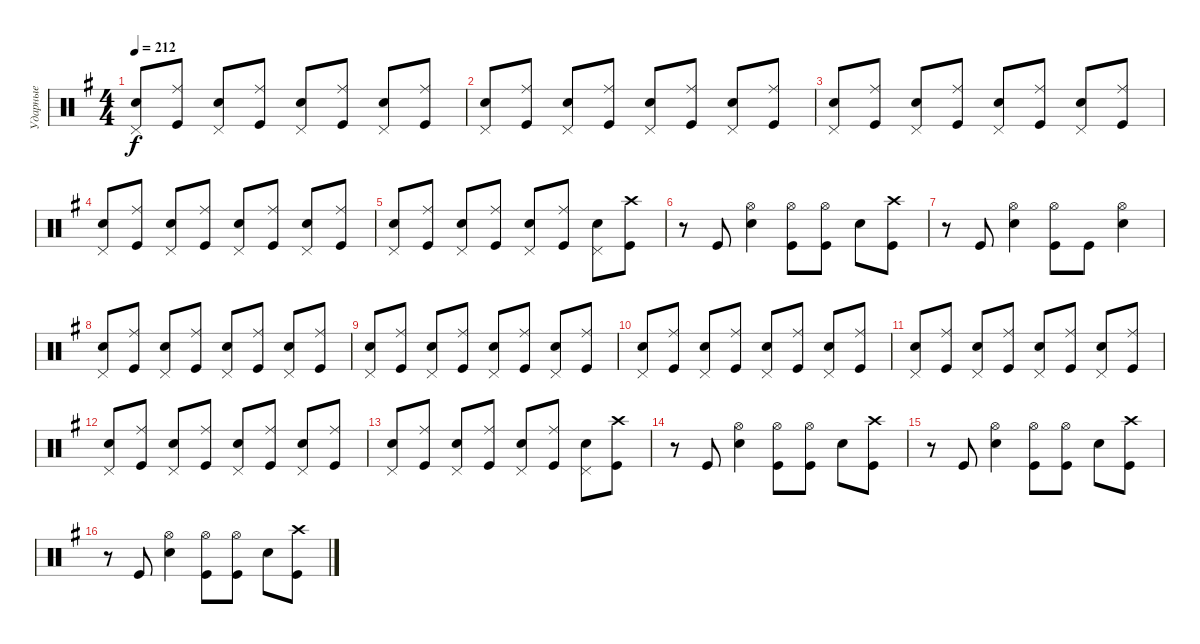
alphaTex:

\track ("Ударные" "Ударные") {instrument percussion}
\staff {score}
\articulation defaults
\ts (4 4)
\tempo 212
\clef neutral
\ks eminor
("Snare (hit) 2" "Pedal Hi-Hat (hit)").8{dy f} ("Kick (hit)" "Ride (middle)").8 ("Snare (hit) 2" "Pedal Hi-Hat (hit)").8 ("Kick (hit)" "Ride (middle)").8 ("Snare (hit) 2" "Pedal Hi-Hat (hit)").8 ("Kick (hit)" "Ride (middle)").8 ("Snare (hit) 2" "Pedal Hi-Hat (hit)").8 ("Kick (hit)" "Ride (middle)").8 |
("Snare (hit) 2" "Pedal Hi-Hat (hit)").8 ("Kick (hit)" "Ride (middle)").8 ("Snare (hit) 2" "Pedal Hi-Hat (hit)").8 ("Kick (hit)" "Ride (middle)").8 ("Snare (hit) 2" "Pedal Hi-Hat (hit)").8 ("Kick (hit)" "Ride (middle)").8 ("Snare (hit) 2" "Pedal Hi-Hat (hit)").8 ("Kick (hit)" "Ride (middle)").8 |
("Snare (hit) 2" "Pedal Hi-Hat (hit)").8 ("Kick (hit)" "Ride (middle)").8 ("Snare (hit) 2" "Pedal Hi-Hat (hit)").8 ("Kick (hit)" "Ride (middle)").8 ("Snare (hit) 2" "Pedal Hi-Hat (hit)").8 ("Kick (hit)" "Ride (middle)").8 ("Snare (hit) 2" "Pedal Hi-Hat (hit)").8 ("Kick (hit)" "Ride (middle)").8 |
("Snare (hit) 2" "Pedal Hi-Hat (hit)").8 ("Kick (hit)" "Ride (middle)").8 ("Snare (hit) 2" "Pedal Hi-Hat (hit)").8 ("Kick (hit)" "Ride (middle)").8 ("Snare (hit) 2" "Pedal Hi-Hat (hit)").8 ("Kick (hit)" "Ride (middle)").8 ("Snare (hit) 2" "Pedal Hi-Hat (hit)").8 ("Kick (hit)" "Ride (middle)").8 |
("Snare (hit) 2" "Pedal Hi-Hat (hit)").8 ("Kick (hit)" "Ride (middle)").8 ("Snare (hit) 2" "Pedal Hi-Hat (hit)").8 ("Kick (hit)" "Ride (middle)").8 ("Snare (hit) 2" "Pedal Hi-Hat (hit)").8 ("Kick (hit)" "Ride (middle)").8 ("Snare (hit) 2" "Pedal Hi-Hat (hit)").8 ("Kick (hit)" "Crash high (hit)").8 |
r.8 "Kick (hit)".8 ("Snare (hit) 2" "Hi-Hat (open)").4 ("Hi-Hat (open)" "Kick (hit)").8 ("Hi-Hat (open)" "Kick (hit)").8 "Snare (hit) 2".8 ("Kick (hit)" "Crash high (hit)").8 |
r.8 "Kick (hit)".8 ("Hi-Hat (open)" "Snare (hit) 2").4 ("Kick (hit)" "Hi-Hat (open)").8 "Kick (hit)".8 ("Snare (hit) 2" "Hi-Hat (open)").4 |
("Snare (hit) 2" "Pedal Hi-Hat (hit)").8 ("Kick (hit)" "Ride (middle)").8 ("Snare (hit) 2" "Pedal Hi-Hat (hit)").8 ("Kick (hit)" "Ride (middle)").8 ("Snare (hit) 2" "Pedal Hi-Hat (hit)").8 ("Kick (hit)" "Ride (middle)").8 ("Snare (hit) 2" "Pedal Hi-Hat (hit)").8 ("Kick (hit)" "Ride (middle)").8 |
("Snare (hit) 2" "Pedal Hi-Hat (hit)").8 ("Kick (hit)" "Ride (middle)").8 ("Snare (hit) 2" "Pedal Hi-Hat (hit)").8 ("Kick (hit)" "Ride (middle)").8 ("Snare (hit) 2" "Pedal Hi-Hat (hit)").8 ("Kick (hit)" "Ride (middle)").8 ("Snare (hit) 2" "Pedal Hi-Hat (hit)").8 ("Kick (hit)" "Ride (middle)").8 |
("Snare (hit) 2" "Pedal Hi-Hat (hit)").8 ("Kick (hit)" "Ride (middle)").8 ("Snare (hit) 2" "Pedal Hi-Hat (hit)").8 ("Kick (hit)" "Ride (middle)").8 ("Snare (hit) 2" "Pedal Hi-Hat (hit)").8 ("Kick (hit)" "Ride (middle)").8 ("Snare (hit) 2" "Pedal Hi-Hat (hit)").8 ("Kick (hit)" "Ride (middle)").8 |
("Snare (hit) 2" "Pedal Hi-Hat (hit)").8 ("Kick (hit)" "Ride (middle)").8 ("Snare (hit) 2" "Pedal Hi-Hat (hit)").8 ("Kick (hit)" "Ride (middle)").8 ("Snare (hit) 2" "Pedal Hi-Hat (hit)").8 ("Kick (hit)" "Ride (middle)").8 ("Snare (hit) 2" "Pedal Hi-Hat (hit)").8 ("Kick (hit)" "Ride (middle)").8 |
("Snare (hit) 2" "Pedal Hi-Hat (hit)").8 ("Kick (hit)" "Ride (middle)").8 ("Snare (hit) 2" "Pedal Hi-Hat (hit)").8 ("Kick (hit)" "Ride (middle)").8 ("Snare (hit) 2" "Pedal Hi-Hat (hit)").8 ("Kick (hit)" "Ride (middle)").8 ("Snare (hit) 2" "Pedal Hi-Hat (hit)").8 ("Kick (hit)" "Ride (middle)").8 |
("Snare (hit) 2" "Pedal Hi-Hat (hit)").8 ("Kick (hit)" "Ride (middle)").8 ("Snare (hit) 2" "Pedal Hi-Hat (hit)").8 ("Kick (hit)" "Ride (middle)").8 ("Snare (hit) 2" "Pedal Hi-Hat (hit)").8 ("Kick (hit)" "Ride (middle)").8 ("Snare (hit) 2" "Pedal Hi-Hat (hit)").8 ("Kick (hit)" "Crash high (hit)").8 |
r.8 "Kick (hit)".8 ("Snare (hit) 2" "Hi-Hat (open)").4 ("Hi-Hat (open)" "Kick (hit)").8 ("Hi-Hat (open)" "Kick (hit)").8 "Snare (hit) 2".8 ("Kick (hit)" "Crash high (hit)").8 |
r.8 "Kick (hit)".8 ("Snare (hit) 2" "Hi-Hat (open)").4 ("Hi-Hat (open)" "Kick (hit)").8 ("Hi-Hat (open)" "Kick (hit)").8 "Snare (hit) 2".8 ("Kick (hit)" "Crash high (hit)").8 |
r.8 "Kick (hit)".8 ("Snare (hit) 2" "Hi-Hat (open)").4 ("Hi-Hat (open)" "Kick (hit)").8 ("Hi-Hat (open)" "Kick (hit)").8 "Snare (hit) 2".8 ("Kick (hit)" "Crash high (hit)").8
